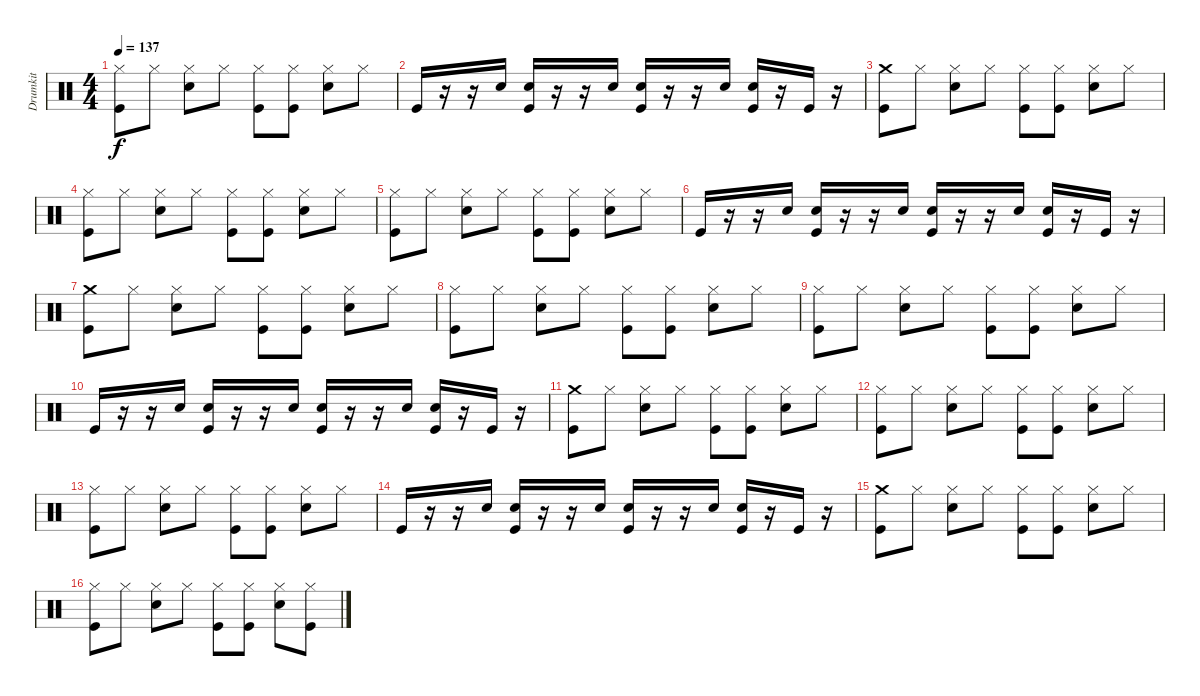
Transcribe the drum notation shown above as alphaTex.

\track ("Drumkit" "Drumkit") {instrument percussion}
\staff {score}
\articulation defaults
\ts (4 4)
\tempo 137
\clef neutral
\ks c
("Hi-Hat (closed)" "Kick (hit)").8{dy f} "Hi-Hat (closed)".8 ("Hi-Hat (closed)" "Snare (hit) 2").8 "Hi-Hat (closed)".8 ("Hi-Hat (closed)" "Kick (hit)").8 ("Hi-Hat (closed)" "Kick (hit)").8 ("Hi-Hat (closed)" "Snare (hit) 2").8 "Hi-Hat (closed)".8 |
"Kick (hit)".16 r.16 r.16 "Snare (hit) 2".16 ("Snare (hit) 2" "Kick (hit)").16 r.16 r.16 "Snare (hit) 2".16 ("Snare (hit) 2" "Kick (hit)").16 r.16 r.16 "Snare (hit) 2".16 ("Snare (hit) 2" "Kick (hit)").16 r.16 "Kick (hit)".16 r.16 |
("Crash medium (hit)" "Kick (hit)").8 "Hi-Hat (closed)".8 ("Hi-Hat (closed)" "Snare (hit) 2").8 "Hi-Hat (closed)".8 ("Hi-Hat (closed)" "Kick (hit)").8 ("Hi-Hat (closed)" "Kick (hit)").8 ("Hi-Hat (closed)" "Snare (hit) 2").8 "Hi-Hat (closed)".8 |
("Hi-Hat (closed)" "Kick (hit)").8 "Hi-Hat (closed)".8 ("Hi-Hat (closed)" "Snare (hit) 2").8 "Hi-Hat (closed)".8 ("Hi-Hat (closed)" "Kick (hit)").8 ("Hi-Hat (closed)" "Kick (hit)").8 ("Hi-Hat (closed)" "Snare (hit) 2").8 "Hi-Hat (closed)".8 |
("Hi-Hat (closed)" "Kick (hit)").8 "Hi-Hat (closed)".8 ("Hi-Hat (closed)" "Snare (hit) 2").8 "Hi-Hat (closed)".8 ("Hi-Hat (closed)" "Kick (hit)").8 ("Hi-Hat (closed)" "Kick (hit)").8 ("Hi-Hat (closed)" "Snare (hit) 2").8 "Hi-Hat (closed)".8 |
"Kick (hit)".16 r.16 r.16 "Snare (hit) 2".16 ("Snare (hit) 2" "Kick (hit)").16 r.16 r.16 "Snare (hit) 2".16 ("Snare (hit) 2" "Kick (hit)").16 r.16 r.16 "Snare (hit) 2".16 ("Snare (hit) 2" "Kick (hit)").16 r.16 "Kick (hit)".16 r.16 |
("Crash medium (hit)" "Kick (hit)").8 "Hi-Hat (closed)".8 ("Hi-Hat (closed)" "Snare (hit) 2").8 "Hi-Hat (closed)".8 ("Hi-Hat (closed)" "Kick (hit)").8 ("Hi-Hat (closed)" "Kick (hit)").8 ("Hi-Hat (closed)" "Snare (hit) 2").8 "Hi-Hat (closed)".8 |
("Hi-Hat (closed)" "Kick (hit)").8 "Hi-Hat (closed)".8 ("Hi-Hat (closed)" "Snare (hit) 2").8 "Hi-Hat (closed)".8 ("Hi-Hat (closed)" "Kick (hit)").8 ("Hi-Hat (closed)" "Kick (hit)").8 ("Hi-Hat (closed)" "Snare (hit) 2").8 "Hi-Hat (closed)".8 |
("Hi-Hat (closed)" "Kick (hit)").8 "Hi-Hat (closed)".8 ("Hi-Hat (closed)" "Snare (hit) 2").8 "Hi-Hat (closed)".8 ("Hi-Hat (closed)" "Kick (hit)").8 ("Hi-Hat (closed)" "Kick (hit)").8 ("Hi-Hat (closed)" "Snare (hit) 2").8 "Hi-Hat (closed)".8 |
"Kick (hit)".16 r.16 r.16 "Snare (hit) 2".16 ("Snare (hit) 2" "Kick (hit)").16 r.16 r.16 "Snare (hit) 2".16 ("Snare (hit) 2" "Kick (hit)").16 r.16 r.16 "Snare (hit) 2".16 ("Snare (hit) 2" "Kick (hit)").16 r.16 "Kick (hit)".16 r.16 |
("Crash medium (hit)" "Kick (hit)").8 "Hi-Hat (closed)".8 ("Hi-Hat (closed)" "Snare (hit) 2").8 "Hi-Hat (closed)".8 ("Hi-Hat (closed)" "Kick (hit)").8 ("Hi-Hat (closed)" "Kick (hit)").8 ("Hi-Hat (closed)" "Snare (hit) 2").8 "Hi-Hat (closed)".8 |
("Hi-Hat (closed)" "Kick (hit)").8 "Hi-Hat (closed)".8 ("Hi-Hat (closed)" "Snare (hit) 2").8 "Hi-Hat (closed)".8 ("Hi-Hat (closed)" "Kick (hit)").8 ("Hi-Hat (closed)" "Kick (hit)").8 ("Hi-Hat (closed)" "Snare (hit) 2").8 "Hi-Hat (closed)".8 |
("Hi-Hat (closed)" "Kick (hit)").8 "Hi-Hat (closed)".8 ("Hi-Hat (closed)" "Snare (hit) 2").8 "Hi-Hat (closed)".8 ("Hi-Hat (closed)" "Kick (hit)").8 ("Hi-Hat (closed)" "Kick (hit)").8 ("Hi-Hat (closed)" "Snare (hit) 2").8 "Hi-Hat (closed)".8 |
"Kick (hit)".16 r.16 r.16 "Snare (hit) 2".16 ("Snare (hit) 2" "Kick (hit)").16 r.16 r.16 "Snare (hit) 2".16 ("Snare (hit) 2" "Kick (hit)").16 r.16 r.16 "Snare (hit) 2".16 ("Snare (hit) 2" "Kick (hit)").16 r.16 "Kick (hit)".16 r.16 |
("Crash medium (hit)" "Kick (hit)").8 "Hi-Hat (closed)".8 ("Hi-Hat (closed)" "Snare (hit) 2").8 "Hi-Hat (closed)".8 ("Hi-Hat (closed)" "Kick (hit)").8 ("Hi-Hat (closed)" "Kick (hit)").8 ("Hi-Hat (closed)" "Snare (hit) 2").8 "Hi-Hat (closed)".8 |
("Hi-Hat (closed)" "Kick (hit)").8 "Hi-Hat (closed)".8 ("Hi-Hat (closed)" "Snare (hit) 2").8 "Hi-Hat (closed)".8 ("Hi-Hat (closed)" "Kick (hit)").8 ("Hi-Hat (closed)" "Kick (hit)").8 ("Hi-Hat (closed)" "Snare (hit) 2").8 ("Hi-Hat (closed)" "Kick (hit)").8
